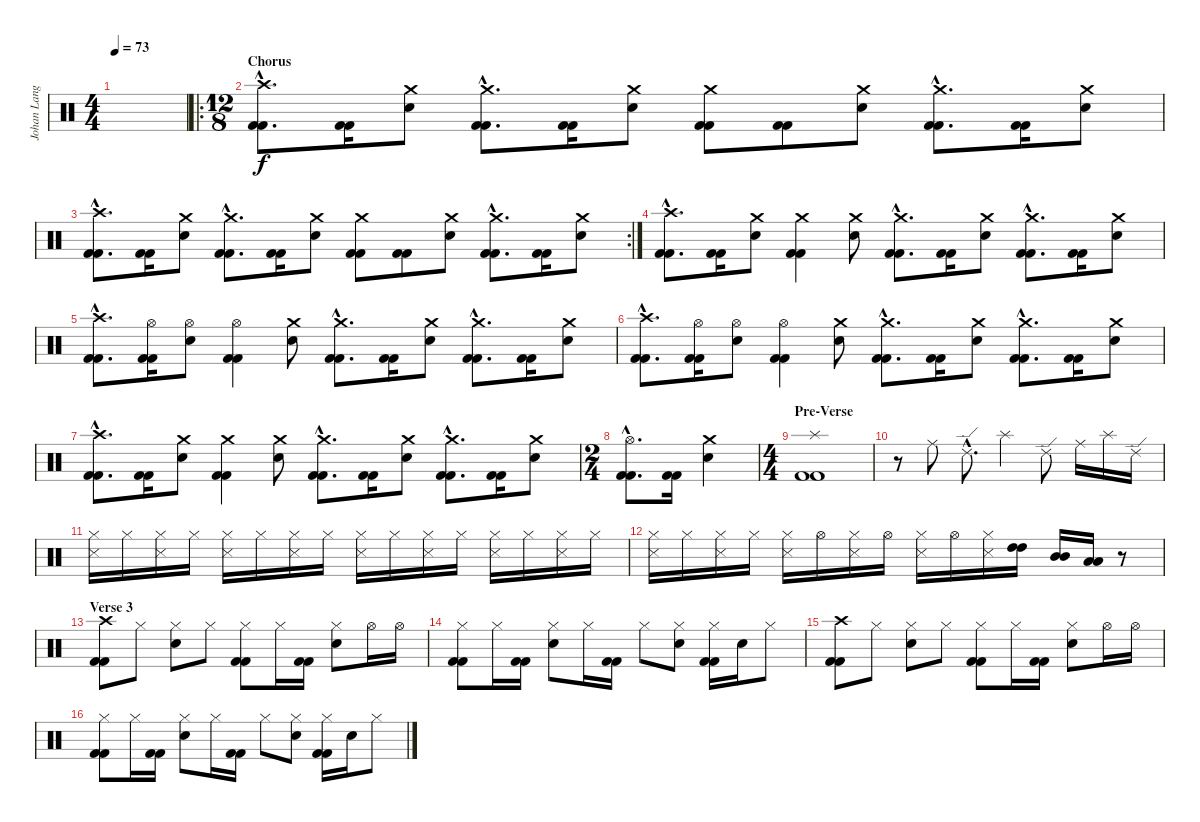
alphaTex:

\track ("Johan Langell" "Johan Lang") {instrument percussion}
\staff {score}
\articulation defaults
\ts (4 4)
\tempo 73
\clef neutral
\ks c
|
\ro
\ts (12 8)
\section ("" "Chorus")
("Crash high (hit)"{hac} "Kick (hit) 2"{hac} "Kick (hit) 2"{hac}).8{d dy f} ("Kick (hit) 2" "Kick (hit) 2").16 ("Crash medium (hit)" "Snare (hit) 2").8 ("Crash medium (hit)"{hac} "Kick (hit) 2"{hac} "Kick (hit) 2"{hac}).8{d} ("Kick (hit) 2" "Kick (hit) 2").16 ("Crash medium (hit)" "Snare (hit) 2").8 ("Crash medium (hit)" "Kick (hit) 2" "Kick (hit) 2").8 ("Kick (hit) 2" "Kick (hit) 2").8 ("Crash medium (hit)" "Snare (hit) 2").8 ("Crash medium (hit)"{hac} "Kick (hit) 2"{hac} "Kick (hit) 2"{hac}).8{d} ("Kick (hit) 2" "Kick (hit) 2").16 ("Crash medium (hit)" "Snare (hit) 2").8 |
\rc 2
("Crash high (hit)"{hac} "Kick (hit) 2"{hac} "Kick (hit) 2"{hac}).8{d} ("Kick (hit) 2" "Kick (hit) 2").16 ("Crash medium (hit)" "Snare (hit) 2").8 ("Crash medium (hit)"{hac} "Kick (hit) 2"{hac} "Kick (hit) 2"{hac}).8{d} ("Kick (hit) 2" "Kick (hit) 2").16 ("Crash medium (hit)" "Snare (hit) 2").8 ("Crash medium (hit)" "Kick (hit) 2" "Kick (hit) 2").8 ("Kick (hit) 2" "Kick (hit) 2").8 ("Crash medium (hit)" "Snare (hit) 2").8 ("Crash medium (hit)"{hac} "Kick (hit) 2"{hac} "Kick (hit) 2"{hac}).8{d} ("Kick (hit) 2" "Kick (hit) 2").16 ("Crash medium (hit)" "Snare (hit) 2").8 |
("Crash high (hit)"{hac} "Kick (hit) 2"{hac} "Kick (hit) 2"{hac}).8{d} ("Kick (hit) 2" "Kick (hit) 2").16 ("Crash medium (hit)" "Snare (hit) 2").8 ("Crash medium (hit)" "Kick (hit) 2" "Kick (hit) 2").4 ("Crash medium (hit)" "Snare (hit) 2").8 ("Crash medium (hit)"{hac} "Kick (hit) 2"{hac} "Kick (hit) 2"{hac}).8{d} ("Kick (hit) 2" "Kick (hit) 2").16 ("Crash medium (hit)" "Snare (hit) 2").8 ("Crash medium (hit)"{hac} "Kick (hit) 2"{hac} "Kick (hit) 2"{hac}).8{d} ("Kick (hit) 2" "Kick (hit) 2").16 ("Crash medium (hit)" "Snare (hit) 2").8 |
("Crash high (hit)"{hac} "Kick (hit) 2"{hac} "Kick (hit) 2"{hac}).8{d} ("Hi-Hat (open)" "Kick (hit) 2" "Kick (hit) 2").16 ("Hi-Hat (open)" "Snare (hit) 2").8 ("Hi-Hat (open)" "Kick (hit) 2" "Kick (hit) 2").4 ("Crash medium (hit)" "Snare (hit) 2").8 ("Crash medium (hit)"{hac} "Kick (hit) 2"{hac} "Kick (hit) 2"{hac}).8{d} ("Kick (hit) 2" "Kick (hit) 2").16 ("Crash medium (hit)" "Snare (hit) 2").8 ("Crash medium (hit)"{hac} "Kick (hit) 2"{hac} "Kick (hit) 2"{hac}).8{d} ("Kick (hit) 2" "Kick (hit) 2").16 ("Crash medium (hit)" "Snare (hit) 2").8 |
("Crash high (hit)"{hac} "Kick (hit) 2"{hac} "Kick (hit) 2"{hac}).8{d} ("Hi-Hat (open)" "Kick (hit) 2" "Kick (hit) 2").16 ("Hi-Hat (open)" "Snare (hit) 2").8 ("Hi-Hat (open)" "Kick (hit) 2" "Kick (hit) 2").4 ("Crash medium (hit)" "Snare (hit) 2").8 ("Crash medium (hit)"{hac} "Kick (hit) 2"{hac} "Kick (hit) 2"{hac}).8{d} ("Kick (hit) 2" "Kick (hit) 2").16 ("Crash medium (hit)" "Snare (hit) 2").8 ("Crash medium (hit)"{hac} "Kick (hit) 2"{hac} "Kick (hit) 2"{hac}).8{d} ("Kick (hit) 2" "Kick (hit) 2").16 ("Crash medium (hit)" "Snare (hit) 2").8 |
("Crash high (hit)"{hac} "Kick (hit) 2"{hac} "Kick (hit) 2"{hac}).8{d} ("Kick (hit) 2" "Kick (hit) 2").16 ("Crash medium (hit)" "Snare (hit) 2").8 ("Crash medium (hit)" "Kick (hit) 2" "Kick (hit) 2").4 ("Crash medium (hit)" "Snare (hit) 2").8 ("Crash medium (hit)"{hac} "Kick (hit) 2"{hac} "Kick (hit) 2"{hac}).8{d} ("Kick (hit) 2" "Kick (hit) 2").16 ("Crash medium (hit)" "Snare (hit) 2").8 ("Crash medium (hit)"{hac} "Kick (hit) 2"{hac} "Kick (hit) 2"{hac}).8{d} ("Kick (hit) 2" "Kick (hit) 2").16 ("Crash medium (hit)" "Snare (hit) 2").8 |
\ts (2 4)
("Hi-Hat (open)"{hac} "Kick (hit) 2"{hac} "Kick (hit) 2"{hac}).8{d} ("Kick (hit) 2" "Kick (hit) 2").16 ("Crash medium (hit)" "Snare (hit) 2").4 |
\ts (4 4)
\section ("" "Pre-Verse")
("Splash (hit)" "Kick (hit) 2" "Kick (hit) 2").1 |
r.8 "Ride (middle)".8 "Ride (edge) 2"{hac}.8{d} "Splash (hit)".4 "Ride (edge) 2".8 "Ride (middle)".16 "Splash (hit)".16 "Ride (edge) 2".16 |
("Snare (side stick) 3" "Hi-Hat (closed)").16 "Hi-Hat (closed)".16 ("Snare (side stick) 3" "Hi-Hat (closed)").16 "Hi-Hat (closed)".16 ("Snare (side stick) 3" "Hi-Hat (closed)").16 "Hi-Hat (closed)".16 ("Snare (side stick) 3" "Hi-Hat (closed)").16 "Hi-Hat (closed)".16 ("Snare (side stick) 3" "Hi-Hat (closed)").16 "Hi-Hat (closed)".16 ("Snare (side stick) 3" "Hi-Hat (closed)").16 "Hi-Hat (closed)".16 ("Snare (side stick) 3" "Hi-Hat (closed)").16 "Hi-Hat (closed)".16 ("Snare (side stick) 3" "Hi-Hat (closed)").16 "Hi-Hat (closed)".16 |
("Snare (side stick) 3" "Hi-Hat (closed)").16 "Hi-Hat (closed)".16 ("Snare (side stick) 3" "Hi-Hat (closed)").16 "Hi-Hat (closed)".16 ("Snare (side stick) 3" "Hi-Hat (closed)").16 "Hi-Hat (open)".16 ("Snare (side stick) 3" "Hi-Hat (closed)").16 "Hi-Hat (open)".16 ("Snare (side stick) 3" "Hi-Hat (closed)").16 "Hi-Hat (open)".16 ("Snare (side stick) 3" "Hi-Hat (closed)").16 ("High Tom (hit)" "High Tom (hit)").16 ("Mid Tom (hit)" "Mid Tom (hit)").16 ("Low Tom (hit)" "Low Tom (hit)").16 r.8 |
\section ("" "Verse 3")
("Crash high (hit)" "Kick (hit) 2" "Kick (hit) 2").8 "Hi-Hat (closed)".8 ("Hi-Hat (closed)" "Snare (hit) 2").8 "Hi-Hat (closed)".8 ("Hi-Hat (closed)" "Kick (hit) 2" "Kick (hit) 2").8 "Hi-Hat (closed)".16 ("Kick (hit) 2" "Kick (hit) 2").16 ("Hi-Hat (closed)" "Snare (hit) 2").8 "Hi-Hat (open)".16 "Hi-Hat (open)".16 |
("Hi-Hat (closed)" "Kick (hit) 2" "Kick (hit) 2").8 "Hi-Hat (closed)".16 ("Kick (hit) 2" "Kick (hit) 2").16 ("Hi-Hat (closed)" "Snare (hit) 2").8 "Hi-Hat (closed)".16 ("Kick (hit) 2" "Kick (hit) 2").16 "Hi-Hat (closed)".8 ("Hi-Hat (closed)" "Snare (hit) 2").8 ("Hi-Hat (closed)" "Kick (hit) 2" "Kick (hit) 2").16 "Snare (hit) 2".16 "Hi-Hat (closed)".8 |
("Crash high (hit)" "Kick (hit) 2" "Kick (hit) 2").8 "Hi-Hat (closed)".8 ("Hi-Hat (closed)" "Snare (hit) 2").8 "Hi-Hat (closed)".8 ("Hi-Hat (closed)" "Kick (hit) 2" "Kick (hit) 2").8 "Hi-Hat (closed)".16 ("Kick (hit) 2" "Kick (hit) 2").16 ("Hi-Hat (closed)" "Snare (hit) 2").8 "Hi-Hat (open)".16 "Hi-Hat (open)".16 |
("Hi-Hat (closed)" "Kick (hit) 2" "Kick (hit) 2").8 "Hi-Hat (closed)".16 ("Kick (hit) 2" "Kick (hit) 2").16 ("Hi-Hat (closed)" "Snare (hit) 2").8 "Hi-Hat (closed)".16 ("Kick (hit) 2" "Kick (hit) 2").16 "Hi-Hat (closed)".8 ("Hi-Hat (closed)" "Snare (hit) 2").8 ("Hi-Hat (closed)" "Kick (hit) 2" "Kick (hit) 2").16 "Snare (hit) 2".16 "Hi-Hat (closed)".8
